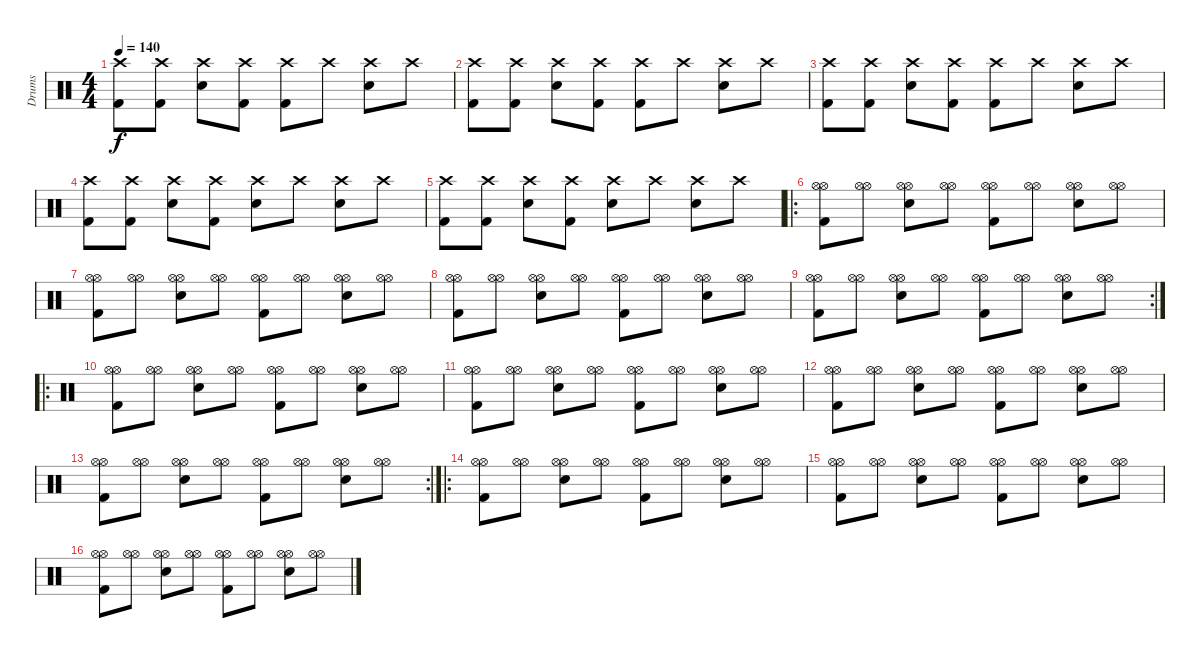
\track ("Drums" "Drums") {instrument percussion}
\staff {score}
\articulation defaults
\ts (4 4)
\tempo 140
\clef neutral
\ks c
("Crash high (hit)" "Kick (hit) 2").8{dy f} ("Crash high (hit)" "Kick (hit) 2").8 ("Crash high (hit)" "Electric Snare (hit)").8 ("Crash high (hit)" "Kick (hit) 2").8 ("Crash high (hit)" "Kick (hit) 2").8 "Crash high (hit)".8 ("Crash high (hit)" "Electric Snare (hit)").8 "Crash high (hit)".8 |
("Crash high (hit)" "Kick (hit) 2").8 ("Crash high (hit)" "Kick (hit) 2").8 ("Crash high (hit)" "Electric Snare (hit)").8 ("Crash high (hit)" "Kick (hit) 2").8 ("Crash high (hit)" "Kick (hit) 2").8 "Crash high (hit)".8 ("Crash high (hit)" "Electric Snare (hit)").8 "Crash high (hit)".8 |
("Crash high (hit)" "Kick (hit) 2").8 ("Crash high (hit)" "Kick (hit) 2").8 ("Crash high (hit)" "Electric Snare (hit)").8 ("Crash high (hit)" "Kick (hit) 2").8 ("Crash high (hit)" "Kick (hit) 2").8 "Crash high (hit)".8 ("Crash high (hit)" "Electric Snare (hit)").8 "Crash high (hit)".8 |
("Crash high (hit)" "Kick (hit) 2").8 ("Crash high (hit)" "Kick (hit) 2").8 ("Crash high (hit)" "Electric Snare (hit)").8 ("Crash high (hit)" "Kick (hit) 2").8 ("Crash high (hit)" "Electric Snare (hit)").8 "Crash high (hit)".8 ("Crash high (hit)" "Electric Snare (hit)").8 "Crash high (hit)".8 |
("Crash high (hit)" "Kick (hit) 2").8 ("Crash high (hit)" "Kick (hit) 2").8 ("Crash high (hit)" "Electric Snare (hit)").8 ("Crash high (hit)" "Kick (hit) 2").8 ("Crash high (hit)" "Electric Snare (hit)").8 "Crash high (hit)".8 ("Crash high (hit)" "Electric Snare (hit)").8 "Crash high (hit)".8 |
\ro
("Hi-Hat (open)" "Hi-Hat (open)" "Kick (hit) 2").8 ("Hi-Hat (open)" "Hi-Hat (open)").8 ("Hi-Hat (open)" "Hi-Hat (open)" "Electric Snare (hit)").8 ("Hi-Hat (open)" "Hi-Hat (open)").8 ("Hi-Hat (open)" "Hi-Hat (open)" "Kick (hit) 2").8 ("Hi-Hat (open)" "Hi-Hat (open)").8 ("Hi-Hat (open)" "Hi-Hat (open)" "Electric Snare (hit)").8 ("Hi-Hat (open)" "Hi-Hat (open)").8 |
("Hi-Hat (open)" "Hi-Hat (open)" "Kick (hit) 2").8 ("Hi-Hat (open)" "Hi-Hat (open)").8 ("Hi-Hat (open)" "Hi-Hat (open)" "Electric Snare (hit)").8 ("Hi-Hat (open)" "Hi-Hat (open)").8 ("Hi-Hat (open)" "Hi-Hat (open)" "Kick (hit) 2").8 ("Hi-Hat (open)" "Hi-Hat (open)").8 ("Hi-Hat (open)" "Hi-Hat (open)" "Electric Snare (hit)").8 ("Hi-Hat (open)" "Hi-Hat (open)").8 |
("Hi-Hat (open)" "Hi-Hat (open)" "Kick (hit) 2").8 ("Hi-Hat (open)" "Hi-Hat (open)").8 ("Hi-Hat (open)" "Hi-Hat (open)" "Electric Snare (hit)").8 ("Hi-Hat (open)" "Hi-Hat (open)").8 ("Hi-Hat (open)" "Hi-Hat (open)" "Kick (hit) 2").8 ("Hi-Hat (open)" "Hi-Hat (open)").8 ("Hi-Hat (open)" "Hi-Hat (open)" "Electric Snare (hit)").8 ("Hi-Hat (open)" "Hi-Hat (open)").8 |
\rc 2
("Hi-Hat (open)" "Hi-Hat (open)" "Kick (hit) 2").8 ("Hi-Hat (open)" "Hi-Hat (open)").8 ("Hi-Hat (open)" "Hi-Hat (open)" "Electric Snare (hit)").8 ("Hi-Hat (open)" "Hi-Hat (open)").8 ("Hi-Hat (open)" "Hi-Hat (open)" "Kick (hit) 2").8 ("Hi-Hat (open)" "Hi-Hat (open)").8 ("Hi-Hat (open)" "Hi-Hat (open)" "Electric Snare (hit)").8 ("Hi-Hat (open)" "Hi-Hat (open)").8 |
\ro
("Hi-Hat (open)" "Hi-Hat (open)" "Kick (hit) 2").8 ("Hi-Hat (open)" "Hi-Hat (open)").8 ("Hi-Hat (open)" "Hi-Hat (open)" "Electric Snare (hit)").8 ("Hi-Hat (open)" "Hi-Hat (open)").8 ("Hi-Hat (open)" "Hi-Hat (open)" "Kick (hit) 2").8 ("Hi-Hat (open)" "Hi-Hat (open)").8 ("Hi-Hat (open)" "Hi-Hat (open)" "Electric Snare (hit)").8 ("Hi-Hat (open)" "Hi-Hat (open)").8 |
("Hi-Hat (open)" "Hi-Hat (open)" "Kick (hit) 2").8 ("Hi-Hat (open)" "Hi-Hat (open)").8 ("Hi-Hat (open)" "Hi-Hat (open)" "Electric Snare (hit)").8 ("Hi-Hat (open)" "Hi-Hat (open)").8 ("Hi-Hat (open)" "Hi-Hat (open)" "Kick (hit) 2").8 ("Hi-Hat (open)" "Hi-Hat (open)").8 ("Hi-Hat (open)" "Hi-Hat (open)" "Electric Snare (hit)").8 ("Hi-Hat (open)" "Hi-Hat (open)").8 |
("Hi-Hat (open)" "Hi-Hat (open)" "Kick (hit) 2").8 ("Hi-Hat (open)" "Hi-Hat (open)").8 ("Hi-Hat (open)" "Hi-Hat (open)" "Electric Snare (hit)").8 ("Hi-Hat (open)" "Hi-Hat (open)").8 ("Hi-Hat (open)" "Hi-Hat (open)" "Kick (hit) 2").8 ("Hi-Hat (open)" "Hi-Hat (open)").8 ("Hi-Hat (open)" "Hi-Hat (open)" "Electric Snare (hit)").8 ("Hi-Hat (open)" "Hi-Hat (open)").8 |
\rc 2
("Hi-Hat (open)" "Hi-Hat (open)" "Kick (hit) 2").8 ("Hi-Hat (open)" "Hi-Hat (open)").8 ("Hi-Hat (open)" "Hi-Hat (open)" "Electric Snare (hit)").8 ("Hi-Hat (open)" "Hi-Hat (open)").8 ("Hi-Hat (open)" "Hi-Hat (open)" "Kick (hit) 2").8 ("Hi-Hat (open)" "Hi-Hat (open)").8 ("Hi-Hat (open)" "Hi-Hat (open)" "Electric Snare (hit)").8 ("Hi-Hat (open)" "Hi-Hat (open)").8 |
\ro
("Hi-Hat (open)" "Hi-Hat (open)" "Kick (hit) 2").8 ("Hi-Hat (open)" "Hi-Hat (open)").8 ("Hi-Hat (open)" "Hi-Hat (open)" "Electric Snare (hit)").8 ("Hi-Hat (open)" "Hi-Hat (open)").8 ("Hi-Hat (open)" "Hi-Hat (open)" "Kick (hit) 2").8 ("Hi-Hat (open)" "Hi-Hat (open)").8 ("Hi-Hat (open)" "Hi-Hat (open)" "Electric Snare (hit)").8 ("Hi-Hat (open)" "Hi-Hat (open)").8 |
("Hi-Hat (open)" "Hi-Hat (open)" "Kick (hit) 2").8 ("Hi-Hat (open)" "Hi-Hat (open)").8 ("Hi-Hat (open)" "Hi-Hat (open)" "Electric Snare (hit)").8 ("Hi-Hat (open)" "Hi-Hat (open)").8 ("Hi-Hat (open)" "Hi-Hat (open)" "Kick (hit) 2").8 ("Hi-Hat (open)" "Hi-Hat (open)").8 ("Hi-Hat (open)" "Hi-Hat (open)" "Electric Snare (hit)").8 ("Hi-Hat (open)" "Hi-Hat (open)").8 |
("Hi-Hat (open)" "Hi-Hat (open)" "Kick (hit) 2").8 ("Hi-Hat (open)" "Hi-Hat (open)").8 ("Hi-Hat (open)" "Hi-Hat (open)" "Electric Snare (hit)").8 ("Hi-Hat (open)" "Hi-Hat (open)").8 ("Hi-Hat (open)" "Hi-Hat (open)" "Kick (hit) 2").8 ("Hi-Hat (open)" "Hi-Hat (open)").8 ("Hi-Hat (open)" "Hi-Hat (open)" "Electric Snare (hit)").8 ("Hi-Hat (open)" "Hi-Hat (open)").8
